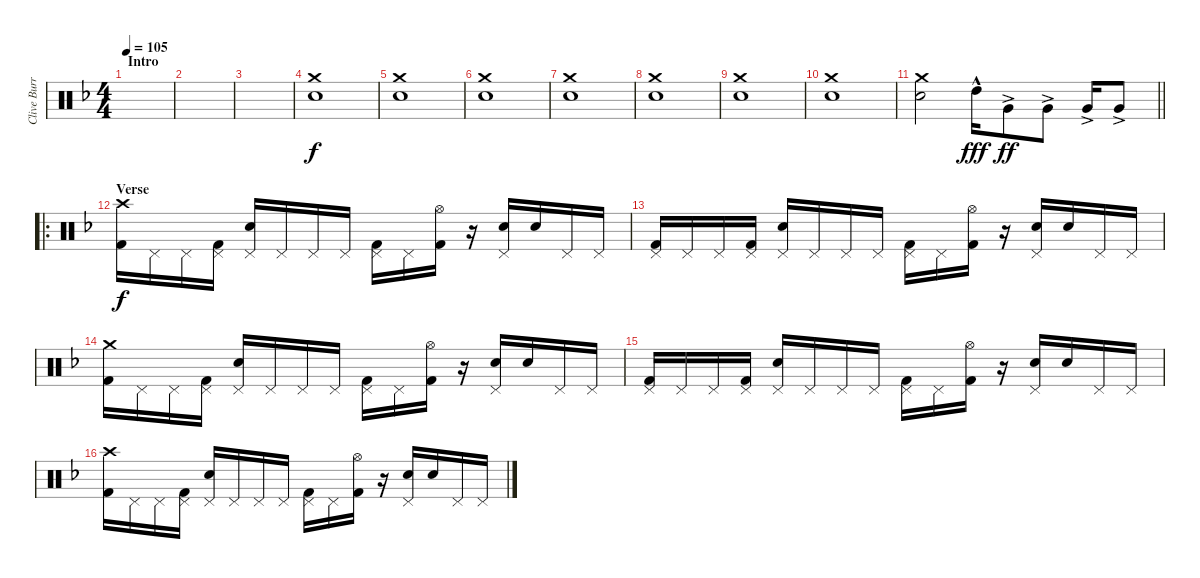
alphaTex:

\track ("Clive Burr" "Clive Burr") {instrument percussion}
\staff {score}
\articulation defaults
\ts (4 4)
\section ("" "Intro")
\tempo 105
\clef neutral
\ks dminor
|
|
|
("Crash medium (hit)" "Electric Snare (hit)").1 |
("Crash medium (hit)" "Electric Snare (hit)").1 |
("Crash medium (hit)" "Electric Snare (hit)").1 |
("Crash medium (hit)" "Electric Snare (hit)").1 |
("Crash medium (hit)" "Electric Snare (hit)").1 |
("Crash medium (hit)" "Electric Snare (hit)").1 |
("Crash medium (hit)" "Electric Snare (hit)").1 |
\barLineRight lightlight
("Crash medium (hit)" "Electric Snare (hit)").2 "High Tom (hit)"{hac}.16{dy fff} "Very Low Tom (hit)"{ac}.8{dy ff} "Very Low Tom (hit)"{ac}.8 "Very Low Tom (hit)"{ac}.16 "Very Low Tom (hit)"{ac}.8 |
\ro
\section ("" "Verse")
("Crash high (hit)" "Kick (hit) 2").16{dy f} "Pedal Hi-Hat (hit)".16 "Pedal Hi-Hat (hit)".16 ("Pedal Hi-Hat (hit)" "Kick (hit) 2").16 ("Pedal Hi-Hat (hit)" "Snare (hit) 2").16 "Pedal Hi-Hat (hit)".16 "Pedal Hi-Hat (hit)".16 "Pedal Hi-Hat (hit)".16 ("Pedal Hi-Hat (hit)" "Kick (hit) 2").16 "Pedal Hi-Hat (hit)".16 ("Hi-Hat (open)" "Kick (hit) 2").16 r.16 ("Pedal Hi-Hat (hit)" "Electric Snare (hit)").16 "Electric Snare (hit)".16 "Pedal Hi-Hat (hit)".16 "Pedal Hi-Hat (hit)".16 |
("Pedal Hi-Hat (hit)" "Kick (hit) 2").16 "Pedal Hi-Hat (hit)".16 "Pedal Hi-Hat (hit)".16 ("Pedal Hi-Hat (hit)" "Kick (hit) 2").16 ("Pedal Hi-Hat (hit)" "Snare (hit) 2").16 "Pedal Hi-Hat (hit)".16 "Pedal Hi-Hat (hit)".16 "Pedal Hi-Hat (hit)".16 ("Pedal Hi-Hat (hit)" "Kick (hit) 2").16 "Pedal Hi-Hat (hit)".16 ("Hi-Hat (open)" "Kick (hit) 2").16 r.16 ("Pedal Hi-Hat (hit)" "Electric Snare (hit)").16 "Electric Snare (hit)".16 "Pedal Hi-Hat (hit)".16 "Pedal Hi-Hat (hit)".16 |
("Crash medium (hit)" "Kick (hit) 2").16 "Pedal Hi-Hat (hit)".16 "Pedal Hi-Hat (hit)".16 ("Pedal Hi-Hat (hit)" "Kick (hit) 2").16 ("Pedal Hi-Hat (hit)" "Snare (hit) 2").16 "Pedal Hi-Hat (hit)".16 "Pedal Hi-Hat (hit)".16 "Pedal Hi-Hat (hit)".16 ("Pedal Hi-Hat (hit)" "Kick (hit) 2").16 "Pedal Hi-Hat (hit)".16 ("Hi-Hat (open)" "Kick (hit) 2").16 r.16 ("Pedal Hi-Hat (hit)" "Electric Snare (hit)").16 "Electric Snare (hit)".16 "Pedal Hi-Hat (hit)".16 "Pedal Hi-Hat (hit)".16 |
("Pedal Hi-Hat (hit)" "Kick (hit) 2").16 "Pedal Hi-Hat (hit)".16 "Pedal Hi-Hat (hit)".16 ("Pedal Hi-Hat (hit)" "Kick (hit) 2").16 ("Pedal Hi-Hat (hit)" "Snare (hit) 2").16 "Pedal Hi-Hat (hit)".16 "Pedal Hi-Hat (hit)".16 "Pedal Hi-Hat (hit)".16 ("Pedal Hi-Hat (hit)" "Kick (hit) 2").16 "Pedal Hi-Hat (hit)".16 ("Hi-Hat (open)" "Kick (hit) 2").16 r.16 ("Pedal Hi-Hat (hit)" "Electric Snare (hit)").16 "Electric Snare (hit)".16 "Pedal Hi-Hat (hit)".16 "Pedal Hi-Hat (hit)".16 |
("Crash high (hit)" "Kick (hit) 2").16 "Pedal Hi-Hat (hit)".16 "Pedal Hi-Hat (hit)".16 ("Pedal Hi-Hat (hit)" "Kick (hit) 2").16 ("Pedal Hi-Hat (hit)" "Snare (hit) 2").16 "Pedal Hi-Hat (hit)".16 "Pedal Hi-Hat (hit)".16 "Pedal Hi-Hat (hit)".16 ("Pedal Hi-Hat (hit)" "Kick (hit) 2").16 "Pedal Hi-Hat (hit)".16 ("Hi-Hat (open)" "Kick (hit) 2").16 r.16 ("Pedal Hi-Hat (hit)" "Electric Snare (hit)").16 "Electric Snare (hit)".16 "Pedal Hi-Hat (hit)".16 "Pedal Hi-Hat (hit)".16
